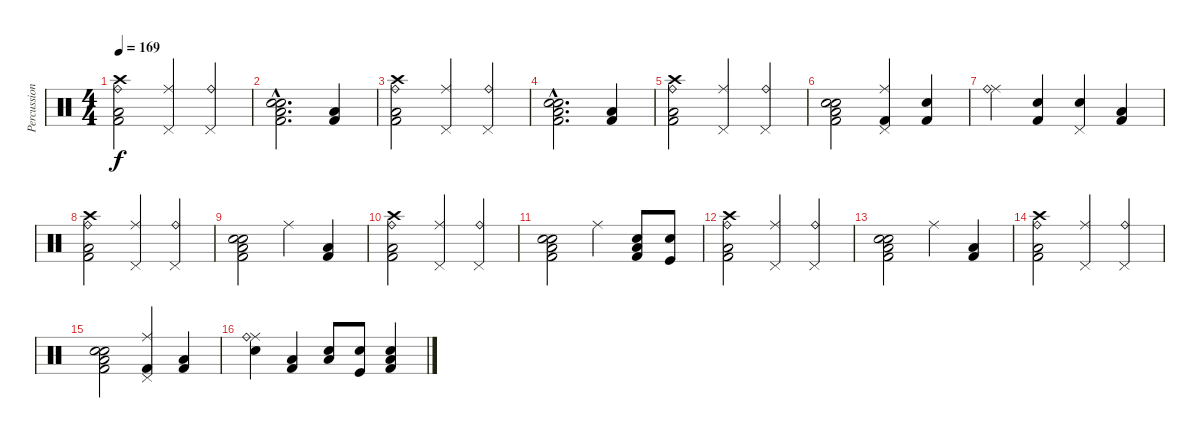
\track ("Percussions" "Percussion") {instrument percussion}
\staff {score}
\articulation defaults
\ts (4 4)
\tempo 169
\clef neutral
\ks c
("Ride (bell)" "Crash high (hit)" "Low Tom (hit)" "Kick (hit) 2").2{dy f} ("Ride (middle)" "Pedal Hi-Hat (hit)").4 ("Pedal Hi-Hat (hit)" "Ride (bell)").4 |
("Kick (hit) 2"{hac} "Low Tom (hit)"{hac} "Snare (hit) 2"{hac} "Electric Snare (hit)"{hac}).2{d} ("Low Tom (hit)" "Kick (hit) 2").4 |
("Ride (bell)" "Crash high (hit)" "Low Tom (hit)" "Kick (hit) 2").2 ("Ride (middle)" "Pedal Hi-Hat (hit)").4 ("Pedal Hi-Hat (hit)" "Ride (bell)").4 |
("Kick (hit) 2"{hac} "Low Tom (hit)"{hac} "Snare (hit) 2"{hac} "Electric Snare (hit)"{hac}).2{d} ("Low Tom (hit)" "Kick (hit) 2").4 |
("Ride (bell)" "Crash high (hit)" "Low Tom (hit)" "Kick (hit) 2").2 ("Ride (middle)" "Pedal Hi-Hat (hit)").4 ("Pedal Hi-Hat (hit)" "Ride (bell)").4 |
("Kick (hit) 2" "Low Tom (hit)" "Snare (hit) 2" "Electric Snare (hit)").2 ("Ride (middle)" "Pedal Hi-Hat (hit)" "Kick (hit) 2").4 ("Kick (hit) 2" "Electric Snare (hit)").4 |
("Ride (middle)" "Ride (bell)").4 ("Kick (hit) 2" "Electric Snare (hit)").4 ("Pedal Hi-Hat (hit)" "Snare (hit) 2").4 ("Low Tom (hit)" "Kick (hit) 2").4 |
("Ride (bell)" "Crash high (hit)" "Low Tom (hit)" "Kick (hit) 2").2 ("Ride (middle)" "Pedal Hi-Hat (hit)").4 ("Pedal Hi-Hat (hit)" "Ride (bell)").4 |
("Kick (hit) 2" "Low Tom (hit)" "Snare (hit) 2" "Electric Snare (hit)").2 "Ride (middle)".4 ("Low Tom (hit)" "Kick (hit) 2").4 |
("Ride (bell)" "Crash high (hit)" "Low Tom (hit)" "Kick (hit) 2").2 ("Ride (middle)" "Pedal Hi-Hat (hit)").4 ("Pedal Hi-Hat (hit)" "Ride (bell)").4 |
("Kick (hit) 2" "Low Tom (hit)" "Snare (hit) 2" "Electric Snare (hit)").2 "Ride (middle)".4 ("Electric Snare (hit)" "Low Tom (hit)" "Kick (hit) 2").8 ("Electric Snare (hit)" "Kick (hit)").8 |
("Ride (bell)" "Crash high (hit)" "Low Tom (hit)" "Kick (hit) 2").2 ("Ride (middle)" "Pedal Hi-Hat (hit)").4 ("Pedal Hi-Hat (hit)" "Ride (bell)").4 |
("Kick (hit) 2" "Low Tom (hit)" "Snare (hit) 2" "Electric Snare (hit)").2 "Ride (middle)".4 ("Low Tom (hit)" "Kick (hit) 2").4 |
("Ride (bell)" "Crash high (hit)" "Low Tom (hit)" "Kick (hit) 2").2 ("Ride (middle)" "Pedal Hi-Hat (hit)").4 ("Pedal Hi-Hat (hit)" "Ride (bell)").4 |
("Kick (hit) 2" "Low Tom (hit)" "Snare (hit) 2" "Electric Snare (hit)").2 ("Ride (middle)" "Pedal Hi-Hat (hit)" "Kick (hit) 2").4 ("Kick (hit) 2" "Low Tom (hit)").4 |
("Ride (middle)" "Ride (bell)" "Snare (hit) 2").4 ("Kick (hit) 2" "Low Tom (hit)").4 ("Electric Snare (hit)" "Low Tom (hit)").8 ("Electric Snare (hit)" "Kick (hit)").8 ("Kick (hit) 2" "Electric Snare (hit)" "Low Floor Tom (hit)").4
